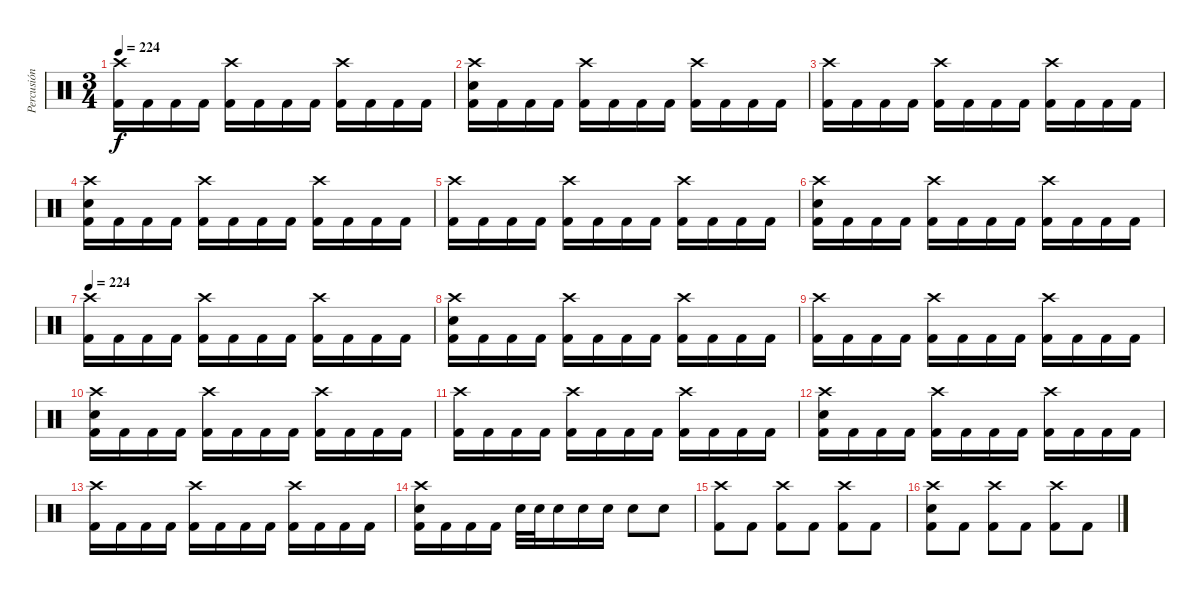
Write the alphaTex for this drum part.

\track ("Percusión" "Percusión") {instrument percussion}
\staff {score}
\articulation defaults
\ts (3 4)
\tempo 224
\clef neutral
\ks c
("Crash high (hit)" "Kick (hit) 2").16{dy f} "Kick (hit) 2".16 "Kick (hit) 2".16 "Kick (hit) 2".16 ("Crash high (hit)" "Kick (hit) 2").16 "Kick (hit) 2".16 "Kick (hit) 2".16 "Kick (hit) 2".16 ("Crash high (hit)" "Kick (hit) 2").16 "Kick (hit) 2".16 "Kick (hit) 2".16 "Kick (hit) 2".16 |
("Crash high (hit)" "Electric Snare (hit)" "Kick (hit) 2").16 "Kick (hit) 2".16 "Kick (hit) 2".16 "Kick (hit) 2".16 ("Crash high (hit)" "Kick (hit) 2").16 "Kick (hit) 2".16 "Kick (hit) 2".16 "Kick (hit) 2".16 ("Crash high (hit)" "Kick (hit) 2").16 "Kick (hit) 2".16 "Kick (hit) 2".16 "Kick (hit) 2".16 |
("Crash high (hit)" "Kick (hit) 2").16 "Kick (hit) 2".16 "Kick (hit) 2".16 "Kick (hit) 2".16 ("Crash high (hit)" "Kick (hit) 2").16 "Kick (hit) 2".16 "Kick (hit) 2".16 "Kick (hit) 2".16 ("Crash high (hit)" "Kick (hit) 2").16 "Kick (hit) 2".16 "Kick (hit) 2".16 "Kick (hit) 2".16 |
("Crash high (hit)" "Electric Snare (hit)" "Kick (hit) 2").16 "Kick (hit) 2".16 "Kick (hit) 2".16 "Kick (hit) 2".16 ("Crash high (hit)" "Kick (hit) 2").16 "Kick (hit) 2".16 "Kick (hit) 2".16 "Kick (hit) 2".16 ("Crash high (hit)" "Kick (hit) 2").16 "Kick (hit) 2".16 "Kick (hit) 2".16 "Kick (hit) 2".16 |
("Crash high (hit)" "Kick (hit) 2").16 "Kick (hit) 2".16 "Kick (hit) 2".16 "Kick (hit) 2".16 ("Crash high (hit)" "Kick (hit) 2").16 "Kick (hit) 2".16 "Kick (hit) 2".16 "Kick (hit) 2".16 ("Crash high (hit)" "Kick (hit) 2").16 "Kick (hit) 2".16 "Kick (hit) 2".16 "Kick (hit) 2".16 |
("Crash high (hit)" "Electric Snare (hit)" "Kick (hit) 2").16 "Kick (hit) 2".16 "Kick (hit) 2".16 "Kick (hit) 2".16 ("Crash high (hit)" "Kick (hit) 2").16 "Kick (hit) 2".16 "Kick (hit) 2".16 "Kick (hit) 2".16 ("Crash high (hit)" "Kick (hit) 2").16 "Kick (hit) 2".16 "Kick (hit) 2".16 "Kick (hit) 2".16 |
\tempo 224
("Crash high (hit)" "Kick (hit) 2").16 "Kick (hit) 2".16 "Kick (hit) 2".16 "Kick (hit) 2".16 ("Crash high (hit)" "Kick (hit) 2").16 "Kick (hit) 2".16 "Kick (hit) 2".16 "Kick (hit) 2".16 ("Crash high (hit)" "Kick (hit) 2").16 "Kick (hit) 2".16 "Kick (hit) 2".16 "Kick (hit) 2".16 |
("Crash high (hit)" "Electric Snare (hit)" "Kick (hit) 2").16 "Kick (hit) 2".16 "Kick (hit) 2".16 "Kick (hit) 2".16 ("Crash high (hit)" "Kick (hit) 2").16 "Kick (hit) 2".16 "Kick (hit) 2".16 "Kick (hit) 2".16 ("Crash high (hit)" "Kick (hit) 2").16 "Kick (hit) 2".16 "Kick (hit) 2".16 "Kick (hit) 2".16 |
("Crash high (hit)" "Kick (hit) 2").16 "Kick (hit) 2".16 "Kick (hit) 2".16 "Kick (hit) 2".16 ("Crash high (hit)" "Kick (hit) 2").16 "Kick (hit) 2".16 "Kick (hit) 2".16 "Kick (hit) 2".16 ("Crash high (hit)" "Kick (hit) 2").16 "Kick (hit) 2".16 "Kick (hit) 2".16 "Kick (hit) 2".16 |
("Crash high (hit)" "Electric Snare (hit)" "Kick (hit) 2").16 "Kick (hit) 2".16 "Kick (hit) 2".16 "Kick (hit) 2".16 ("Crash high (hit)" "Kick (hit) 2").16 "Kick (hit) 2".16 "Kick (hit) 2".16 "Kick (hit) 2".16 ("Crash high (hit)" "Kick (hit) 2").16 "Kick (hit) 2".16 "Kick (hit) 2".16 "Kick (hit) 2".16 |
("Crash high (hit)" "Kick (hit) 2").16 "Kick (hit) 2".16 "Kick (hit) 2".16 "Kick (hit) 2".16 ("Crash high (hit)" "Kick (hit) 2").16 "Kick (hit) 2".16 "Kick (hit) 2".16 "Kick (hit) 2".16 ("Crash high (hit)" "Kick (hit) 2").16 "Kick (hit) 2".16 "Kick (hit) 2".16 "Kick (hit) 2".16 |
("Crash high (hit)" "Electric Snare (hit)" "Kick (hit) 2").16 "Kick (hit) 2".16 "Kick (hit) 2".16 "Kick (hit) 2".16 ("Crash high (hit)" "Kick (hit) 2").16 "Kick (hit) 2".16 "Kick (hit) 2".16 "Kick (hit) 2".16 ("Crash high (hit)" "Kick (hit) 2").16 "Kick (hit) 2".16 "Kick (hit) 2".16 "Kick (hit) 2".16 |
("Crash high (hit)" "Kick (hit) 2").16 "Kick (hit) 2".16 "Kick (hit) 2".16 "Kick (hit) 2".16 ("Crash high (hit)" "Kick (hit) 2").16 "Kick (hit) 2".16 "Kick (hit) 2".16 "Kick (hit) 2".16 ("Crash high (hit)" "Kick (hit) 2").16 "Kick (hit) 2".16 "Kick (hit) 2".16 "Kick (hit) 2".16 |
("Crash high (hit)" "Electric Snare (hit)" "Kick (hit) 2").16 "Kick (hit) 2".16 "Kick (hit) 2".16 "Kick (hit) 2".16 "Electric Snare (hit)".32 "Electric Snare (hit)".32 "Electric Snare (hit)".16 "Electric Snare (hit)".16 "Electric Snare (hit)".16 "Electric Snare (hit)".8 "Electric Snare (hit)".8 |
("Crash high (hit)" "Kick (hit) 2").8 "Kick (hit) 2".8 ("Crash high (hit)" "Kick (hit) 2").8 "Kick (hit) 2".8 ("Crash high (hit)" "Kick (hit) 2").8 "Kick (hit) 2".8 |
("Crash high (hit)" "Electric Snare (hit)" "Kick (hit) 2").8 "Kick (hit) 2".8 ("Crash high (hit)" "Kick (hit) 2").8 "Kick (hit) 2".8 ("Crash high (hit)" "Kick (hit) 2").8 "Kick (hit) 2".8
